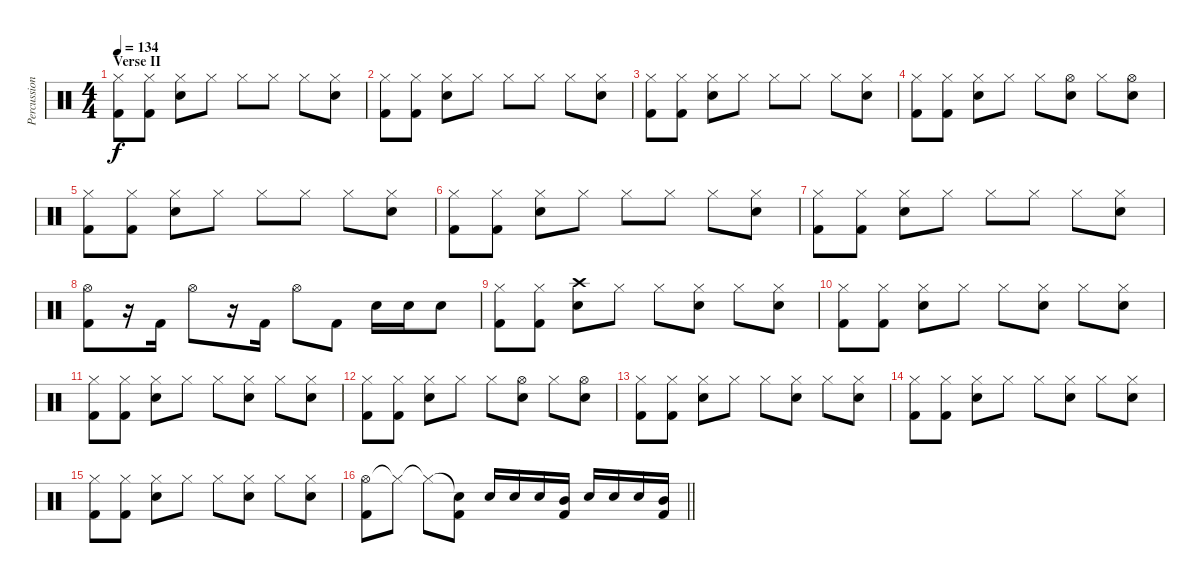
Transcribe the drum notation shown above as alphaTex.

\track ("Percussion" "Percussion") {instrument percussion}
\staff {score}
\articulation defaults
\ts (4 4)
\section ("" "Verse II")
\tempo 134
\clef neutral
\ks c
("Hi-Hat (closed)" "Kick (hit) 2").8{dy f} ("Hi-Hat (closed)" "Kick (hit) 2").8 ("Hi-Hat (closed)" "Snare (hit) 2").8 "Hi-Hat (closed)".8 "Hi-Hat (closed)".8 "Hi-Hat (closed)".8 "Hi-Hat (closed)".8 ("Hi-Hat (closed)" "Snare (hit) 2").8 |
("Hi-Hat (closed)" "Kick (hit) 2").8 ("Hi-Hat (closed)" "Kick (hit) 2").8 ("Hi-Hat (closed)" "Snare (hit) 2").8 "Hi-Hat (closed)".8 "Hi-Hat (closed)".8 "Hi-Hat (closed)".8 "Hi-Hat (closed)".8 ("Hi-Hat (closed)" "Snare (hit) 2").8 |
("Hi-Hat (closed)" "Kick (hit) 2").8 ("Hi-Hat (closed)" "Kick (hit) 2").8 ("Hi-Hat (closed)" "Snare (hit) 2").8 "Hi-Hat (closed)".8 "Hi-Hat (closed)".8 "Hi-Hat (closed)".8 "Hi-Hat (closed)".8 ("Hi-Hat (closed)" "Snare (hit) 2").8 |
("Hi-Hat (closed)" "Kick (hit) 2").8 ("Hi-Hat (closed)" "Kick (hit) 2").8 ("Hi-Hat (closed)" "Snare (hit) 2").8 "Hi-Hat (closed)".8 "Hi-Hat (closed)".8 ("Hi-Hat (open)" "Snare (hit) 2").8 "Hi-Hat (closed)".8 ("Hi-Hat (open)" "Snare (hit) 2").8 |
("Hi-Hat (closed)" "Kick (hit) 2").8 ("Hi-Hat (closed)" "Kick (hit) 2").8 ("Hi-Hat (closed)" "Snare (hit) 2").8 "Hi-Hat (closed)".8 "Hi-Hat (closed)".8 "Hi-Hat (closed)".8 "Hi-Hat (closed)".8 ("Hi-Hat (closed)" "Snare (hit) 2").8 |
("Hi-Hat (closed)" "Kick (hit) 2").8 ("Hi-Hat (closed)" "Kick (hit) 2").8 ("Hi-Hat (closed)" "Snare (hit) 2").8 "Hi-Hat (closed)".8 "Hi-Hat (closed)".8 "Hi-Hat (closed)".8 "Hi-Hat (closed)".8 ("Hi-Hat (closed)" "Snare (hit) 2").8 |
("Hi-Hat (closed)" "Kick (hit) 2").8 ("Hi-Hat (closed)" "Kick (hit) 2").8 ("Hi-Hat (closed)" "Snare (hit) 2").8 "Hi-Hat (closed)".8 "Hi-Hat (closed)".8 "Hi-Hat (closed)".8 "Hi-Hat (closed)".8 ("Hi-Hat (closed)" "Snare (hit) 2").8 |
("Hi-Hat (open)" "Kick (hit) 2").8 r.16 "Kick (hit) 2".16 "Hi-Hat (open)".8 r.16 "Kick (hit) 2".16 "Hi-Hat (open)".8 "Kick (hit) 2".8 "Snare (hit) 2".16 "Snare (hit) 2".16 "Snare (hit) 2".8 |
("Hi-Hat (closed)" "Kick (hit) 2").8 ("Hi-Hat (closed)" "Kick (hit) 2").8 ("Crash high (hit)" "Snare (hit) 2").8 "Hi-Hat (closed)".8 "Hi-Hat (closed)".8 ("Hi-Hat (closed)" "Snare (hit) 2").8 "Hi-Hat (closed)".8 ("Hi-Hat (closed)" "Snare (hit) 2").8 |
("Hi-Hat (closed)" "Kick (hit) 2").8 ("Hi-Hat (closed)" "Kick (hit) 2").8 ("Hi-Hat (closed)" "Snare (hit) 2").8 "Hi-Hat (closed)".8 "Hi-Hat (closed)".8 ("Hi-Hat (closed)" "Snare (hit) 2").8 "Hi-Hat (closed)".8 ("Hi-Hat (closed)" "Snare (hit) 2").8 |
("Hi-Hat (closed)" "Kick (hit) 2").8 ("Hi-Hat (closed)" "Kick (hit) 2").8 ("Hi-Hat (closed)" "Snare (hit) 2").8 "Hi-Hat (closed)".8 "Hi-Hat (closed)".8 ("Hi-Hat (closed)" "Snare (hit) 2").8 "Hi-Hat (closed)".8 ("Hi-Hat (closed)" "Snare (hit) 2").8 |
("Hi-Hat (closed)" "Kick (hit) 2").8 ("Hi-Hat (closed)" "Kick (hit) 2").8 ("Hi-Hat (closed)" "Snare (hit) 2").8 "Hi-Hat (closed)".8 "Hi-Hat (closed)".8 ("Hi-Hat (open)" "Snare (hit) 2").8 "Hi-Hat (closed)".8 ("Hi-Hat (open)" "Snare (hit) 2").8 |
("Hi-Hat (closed)" "Kick (hit) 2").8 ("Hi-Hat (closed)" "Kick (hit) 2").8 ("Hi-Hat (closed)" "Snare (hit) 2").8 "Hi-Hat (closed)".8 "Hi-Hat (closed)".8 ("Hi-Hat (closed)" "Snare (hit) 2").8 "Hi-Hat (closed)".8 ("Hi-Hat (closed)" "Snare (hit) 2").8 |
("Hi-Hat (closed)" "Kick (hit) 2").8 ("Hi-Hat (closed)" "Kick (hit) 2").8 ("Hi-Hat (closed)" "Snare (hit) 2").8 "Hi-Hat (closed)".8 "Hi-Hat (closed)".8 ("Hi-Hat (closed)" "Snare (hit) 2").8 "Hi-Hat (closed)".8 ("Hi-Hat (closed)" "Snare (hit) 2").8 |
("Hi-Hat (closed)" "Kick (hit) 2").8 ("Hi-Hat (closed)" "Kick (hit) 2").8 ("Hi-Hat (closed)" "Snare (hit) 2").8 "Hi-Hat (closed)".8 "Hi-Hat (closed)".8 ("Hi-Hat (closed)" "Snare (hit) 2").8 "Hi-Hat (closed)".8 ("Hi-Hat (closed)" "Snare (hit) 2").8 |
\barLineRight lightlight
("Hi-Hat (open)" "Kick (hit) 2").8 "Hi-Hat (closed)"{t}.8 "Hi-Hat (closed)"{t}.8 ("Snare (hit)"{t} "Kick (hit) 2").8 "Snare (hit) 2".16 "Snare (hit) 2".16 "Snare (hit) 2".16 ("Mid Tom (hit)" "Kick (hit) 2").16 "Snare (hit) 2".16 "Snare (hit) 2".16 "Snare (hit) 2".16 ("Mid Tom (hit)" "Kick (hit) 2").16
